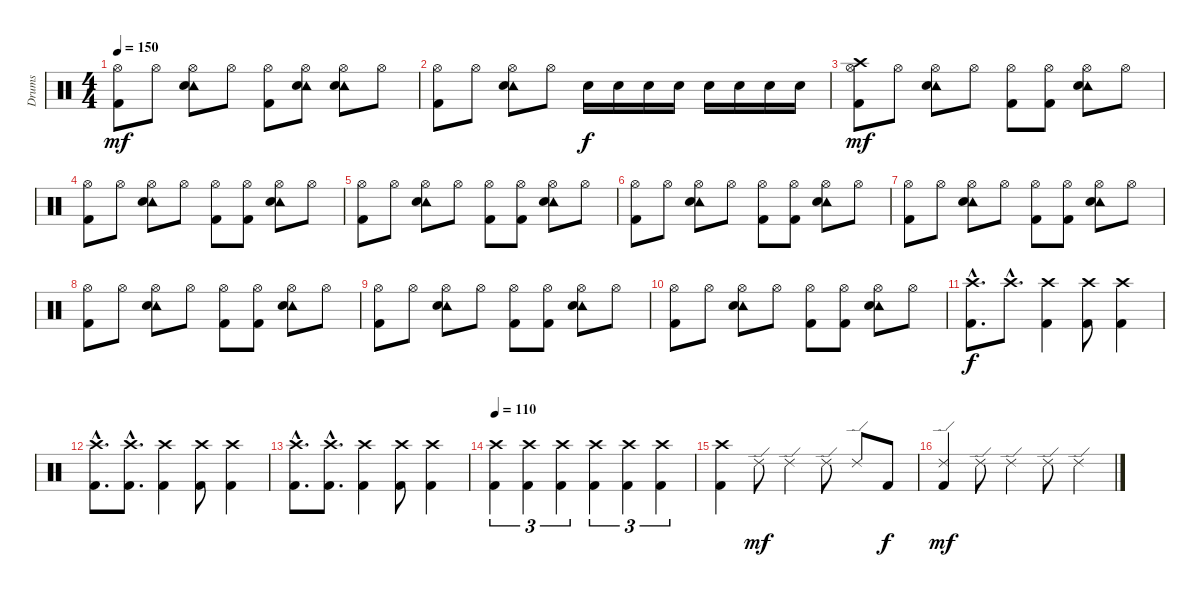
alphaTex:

\track ("Drums" "Drums") {instrument percussion}
\staff {score}
\articulation defaults
\ts (4 4)
\tempo 150
\clef neutral
\ks c
("Hi-Hat (open)" "Kick (hit) 2").8{dy mf} "Hi-Hat (open)".8 ("Tambourine (hit)" "Hi-Hat (open)" "Snare (hit) 2").8 "Hi-Hat (open)".8 ("Hi-Hat (open)" "Kick (hit) 2").8 ("Tambourine (hit)" "Hi-Hat (open)" "Snare (hit) 2").8 ("Tambourine (hit)" "Hi-Hat (open)" "Snare (hit) 2").8 "Hi-Hat (open)".8 |
("Hi-Hat (open)" "Kick (hit) 2").8 "Hi-Hat (open)".8 ("Tambourine (hit)" "Hi-Hat (open)" "Snare (hit) 2").8 "Hi-Hat (open)".8 "Snare (hit) 2".16{dy f} "Snare (hit) 2".16 "Snare (hit) 2".16 "Snare (hit) 2".16 "Snare (hit) 2".16 "Snare (hit) 2".16 "Snare (hit) 2".16 "Snare (hit) 2".16 |
("Crash high (hit)" "Hi-Hat (open)" "Kick (hit) 2").8{dy mf} "Hi-Hat (open)".8 ("Tambourine (hit)" "Hi-Hat (open)" "Snare (hit) 2").8 "Hi-Hat (open)".8 ("Hi-Hat (open)" "Kick (hit) 2").8 ("Hi-Hat (open)" "Kick (hit) 2").8 ("Tambourine (hit)" "Hi-Hat (open)" "Snare (hit) 2").8 "Hi-Hat (open)".8 |
("Hi-Hat (open)" "Kick (hit) 2").8 "Hi-Hat (open)".8 ("Tambourine (hit)" "Hi-Hat (open)" "Snare (hit) 2").8 "Hi-Hat (open)".8 ("Hi-Hat (open)" "Kick (hit) 2").8 ("Hi-Hat (open)" "Kick (hit) 2").8 ("Tambourine (hit)" "Hi-Hat (open)" "Snare (hit) 2").8 "Hi-Hat (open)".8 |
("Hi-Hat (open)" "Kick (hit) 2").8 "Hi-Hat (open)".8 ("Tambourine (hit)" "Hi-Hat (open)" "Snare (hit) 2").8 "Hi-Hat (open)".8 ("Hi-Hat (open)" "Kick (hit) 2").8 ("Hi-Hat (open)" "Kick (hit) 2").8 ("Tambourine (hit)" "Hi-Hat (open)" "Snare (hit) 2").8 "Hi-Hat (open)".8 |
("Hi-Hat (open)" "Kick (hit) 2").8 "Hi-Hat (open)".8 ("Tambourine (hit)" "Hi-Hat (open)" "Snare (hit) 2").8 "Hi-Hat (open)".8 ("Hi-Hat (open)" "Kick (hit) 2").8 ("Hi-Hat (open)" "Kick (hit) 2").8 ("Tambourine (hit)" "Hi-Hat (open)" "Snare (hit) 2").8 "Hi-Hat (open)".8 |
("Hi-Hat (open)" "Kick (hit) 2").8 "Hi-Hat (open)".8 ("Tambourine (hit)" "Hi-Hat (open)" "Snare (hit) 2").8 "Hi-Hat (open)".8 ("Hi-Hat (open)" "Kick (hit) 2").8 ("Hi-Hat (open)" "Kick (hit) 2").8 ("Tambourine (hit)" "Hi-Hat (open)" "Snare (hit) 2").8 "Hi-Hat (open)".8 |
("Hi-Hat (open)" "Kick (hit) 2").8 "Hi-Hat (open)".8 ("Tambourine (hit)" "Hi-Hat (open)" "Snare (hit) 2").8 "Hi-Hat (open)".8 ("Hi-Hat (open)" "Kick (hit) 2").8 ("Hi-Hat (open)" "Kick (hit) 2").8 ("Tambourine (hit)" "Hi-Hat (open)" "Snare (hit) 2").8 "Hi-Hat (open)".8 |
("Hi-Hat (open)" "Kick (hit) 2").8 "Hi-Hat (open)".8 ("Tambourine (hit)" "Hi-Hat (open)" "Snare (hit) 2").8 "Hi-Hat (open)".8 ("Hi-Hat (open)" "Kick (hit) 2").8 ("Hi-Hat (open)" "Kick (hit) 2").8 ("Tambourine (hit)" "Hi-Hat (open)" "Snare (hit) 2").8 "Hi-Hat (open)".8 |
("Hi-Hat (open)" "Kick (hit) 2").8 "Hi-Hat (open)".8 ("Tambourine (hit)" "Hi-Hat (open)" "Snare (hit) 2").8 "Hi-Hat (open)".8 ("Hi-Hat (open)" "Kick (hit) 2").8 ("Hi-Hat (open)" "Kick (hit) 2").8 ("Tambourine (hit)" "Hi-Hat (open)" "Snare (hit) 2").8 "Hi-Hat (open)".8 |
("Kick (hit) 2"{hac} "Crash high (hit)"{hac}).8{d dy f} "Crash high (hit)"{hac}.8{d} ("Kick (hit) 2" "Crash high (hit)").4 ("Kick (hit) 2" "Crash high (hit)").8 ("Kick (hit) 2" "Crash high (hit)").4 |
("Kick (hit) 2"{hac} "Crash high (hit)"{hac}).8{d} ("Kick (hit) 2"{hac} "Crash high (hit)"{hac}).8{d} ("Kick (hit) 2" "Crash high (hit)").4 ("Kick (hit) 2" "Crash high (hit)").8 ("Kick (hit) 2" "Crash high (hit)").4 |
("Kick (hit) 2"{hac} "Crash high (hit)"{hac}).8{d} ("Kick (hit) 2"{hac} "Crash high (hit)"{hac}).8{d} ("Kick (hit) 2" "Crash high (hit)").4 ("Kick (hit) 2" "Crash high (hit)").8 ("Kick (hit) 2" "Crash high (hit)").4 |
\tempo 110
("Crash high (hit)" "Kick (hit) 2").4{tu (3 2)} ("Crash high (hit)" "Kick (hit) 2").4{tu (3 2)} ("Crash high (hit)" "Kick (hit) 2").4{tu (3 2)} ("Crash high (hit)" "Kick (hit) 2").4{tu (3 2)} ("Crash high (hit)" "Kick (hit) 2").4{tu (3 2)} ("Crash high (hit)" "Kick (hit) 2").4{tu (3 2)} |
("Kick (hit) 2" "Crash high (hit)").4 "Ride (edge) 2".8{dy mf} "Ride (edge) 2".4 "Ride (edge) 2".8 "Ride (edge) 2".8 "Kick (hit) 2".8{dy f} |
("Kick (hit) 2" "Ride (edge) 2").4{dy mf} "Ride (edge) 2".8 "Ride (edge) 2".4 "Ride (edge) 2".8 "Ride (edge) 2".4
